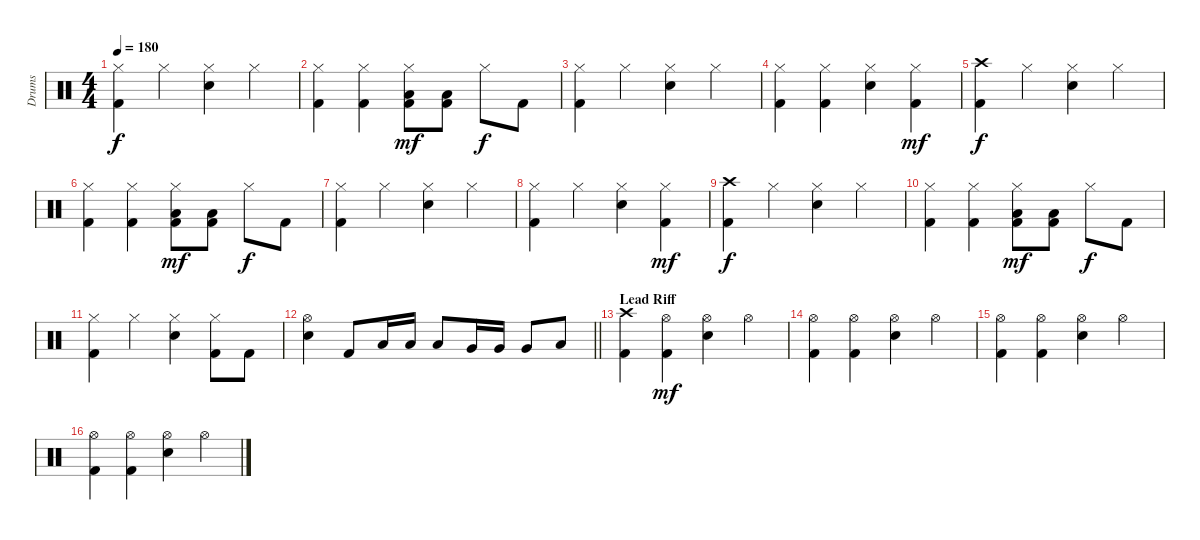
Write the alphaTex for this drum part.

\track ("Drums" "Drums") {instrument percussion}
\staff {score}
\articulation defaults
\ts (4 4)
\tempo 180
\clef neutral
\ks c
("Hi-Hat (closed)" "Kick (hit) 2").4{dy f} "Hi-Hat (closed)".4 ("Hi-Hat (closed)" "Snare (hit) 2").4 "Hi-Hat (closed)".4 |
("Hi-Hat (closed)" "Kick (hit) 2").4 ("Hi-Hat (closed)" "Kick (hit) 2").4 ("Hi-Hat (closed)" "Low Floor Tom (hit)" "Kick (hit) 2").8{dy mf} ("Low Floor Tom (hit)" "Kick (hit) 2").8 "Hi-Hat (closed)".8{dy f} "Kick (hit) 2".8 |
("Hi-Hat (closed)" "Kick (hit) 2").4 "Hi-Hat (closed)".4 ("Hi-Hat (closed)" "Snare (hit) 2").4 "Hi-Hat (closed)".4 |
("Hi-Hat (closed)" "Kick (hit) 2").4 ("Hi-Hat (closed)" "Kick (hit) 2").4 ("Hi-Hat (closed)" "Snare (hit) 2").4 ("Hi-Hat (closed)" "Kick (hit) 2").4{dy mf} |
("Crash high (hit)" "Kick (hit) 2").4{dy f} "Hi-Hat (closed)".4 ("Hi-Hat (closed)" "Snare (hit) 2").4 "Hi-Hat (closed)".4 |
("Hi-Hat (closed)" "Kick (hit) 2").4 ("Hi-Hat (closed)" "Kick (hit) 2").4 ("Hi-Hat (closed)" "Low Floor Tom (hit)" "Kick (hit) 2").8{dy mf} ("Low Floor Tom (hit)" "Kick (hit) 2").8 "Hi-Hat (closed)".8{dy f} "Kick (hit) 2".8 |
("Hi-Hat (closed)" "Kick (hit) 2").4 "Hi-Hat (closed)".4 ("Hi-Hat (closed)" "Snare (hit) 2").4 "Hi-Hat (closed)".4 |
("Hi-Hat (closed)" "Kick (hit) 2").4 "Hi-Hat (closed)".4 ("Hi-Hat (closed)" "Snare (hit) 2").4 ("Hi-Hat (closed)" "Kick (hit) 2").4{dy mf} |
("Crash high (hit)" "Kick (hit) 2").4{dy f} "Hi-Hat (closed)".4 ("Hi-Hat (closed)" "Snare (hit) 2").4 "Hi-Hat (closed)".4 |
("Hi-Hat (closed)" "Kick (hit) 2").4 ("Hi-Hat (closed)" "Kick (hit) 2").4 ("Hi-Hat (closed)" "Low Floor Tom (hit)" "Kick (hit) 2").8{dy mf} ("Low Floor Tom (hit)" "Kick (hit) 2").8 "Hi-Hat (closed)".8{dy f} "Kick (hit) 2".8 |
("Hi-Hat (closed)" "Kick (hit) 2").4 "Hi-Hat (closed)".4 ("Hi-Hat (closed)" "Snare (hit) 2").4 ("Hi-Hat (closed)" "Kick (hit) 2").8 "Kick (hit) 2".8 |
\barLineRight lightlight
("Hi-Hat (open)" "Snare (hit) 2").4 "Kick (hit) 2".8 "Low Tom (hit)".16 "Low Tom (hit)".16 "Low Tom (hit)".8 "Very Low Tom (hit)".16 "Very Low Tom (hit)".16 "Very Low Tom (hit)".8 "Low Floor Tom (hit)".8 |
\section ("" "Lead Riff")
("Crash high (hit)" "Kick (hit) 2").4 ("Hi-Hat (open)" "Kick (hit) 2").4{dy mf} ("Hi-Hat (open)" "Snare (hit) 2").4 "Hi-Hat (open)".4 |
("Hi-Hat (open)" "Kick (hit) 2").4 ("Hi-Hat (open)" "Kick (hit) 2").4 ("Hi-Hat (open)" "Snare (hit) 2").4 "Hi-Hat (open)".4 |
("Hi-Hat (open)" "Kick (hit) 2").4 ("Hi-Hat (open)" "Kick (hit) 2").4 ("Hi-Hat (open)" "Snare (hit) 2").4 "Hi-Hat (open)".4 |
("Hi-Hat (open)" "Kick (hit) 2").4 ("Hi-Hat (open)" "Kick (hit) 2").4 ("Hi-Hat (open)" "Snare (hit) 2").4 "Hi-Hat (open)".4
